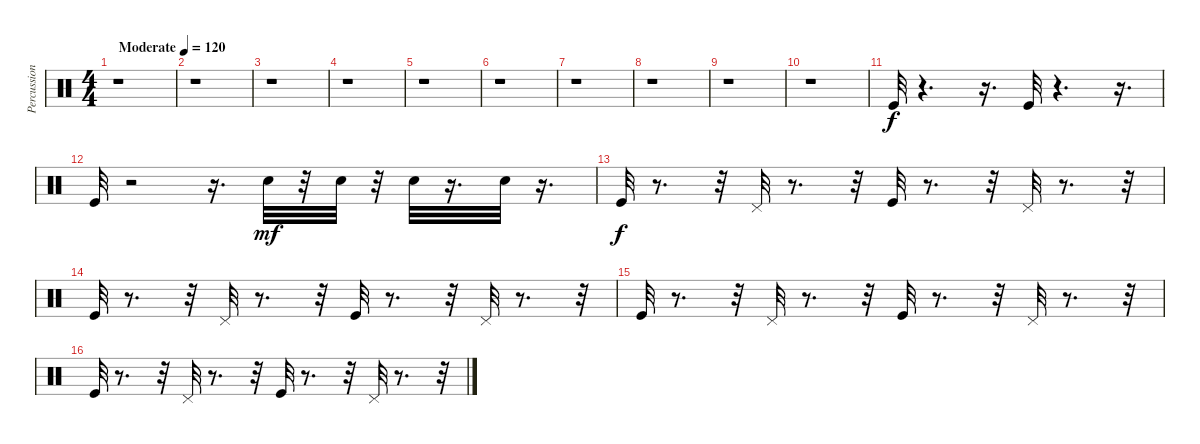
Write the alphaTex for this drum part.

\track ("Percussion" "Percussion") {instrument percussion}
\staff {score}
\articulation defaults
\ts (4 4)
\tempo (120 "Moderate")
\clef neutral
\ks c
r.1{dy f} |
r.1 |
r.1 |
r.1 |
r.1 |
r.1 |
r.1 |
r.1 |
r.1 |
r.1 |
"Kick (hit)".32 r.4{d} r.16{d} "Kick (hit)".32 r.4{d} r.16{d} |
"Kick (hit)".32 r.2 r.16{d} "Electric Snare (hit)".32{dy mf} r.32 "Electric Snare (hit)".32 r.32 "Electric Snare (hit)".32 r.16{d} "Electric Snare (hit)".32 r.16{d} |
"Kick (hit)".32{dy f} r.8{d} r.32 "Pedal Hi-Hat (hit)".32 r.8{d} r.32 "Kick (hit)".32 r.8{d} r.32 "Pedal Hi-Hat (hit)".32 r.8{d} r.32 |
"Kick (hit)".32 r.8{d} r.32 "Pedal Hi-Hat (hit)".32 r.8{d} r.32 "Kick (hit)".32 r.8{d} r.32 "Pedal Hi-Hat (hit)".32 r.8{d} r.32 |
"Kick (hit)".32 r.8{d} r.32 "Pedal Hi-Hat (hit)".32 r.8{d} r.32 "Kick (hit)".32 r.8{d} r.32 "Pedal Hi-Hat (hit)".32 r.8{d} r.32 |
"Kick (hit)".32 r.8{d} r.32 "Pedal Hi-Hat (hit)".32 r.8{d} r.32 "Kick (hit)".32 r.8{d} r.32 "Pedal Hi-Hat (hit)".32 r.8{d} r.32
